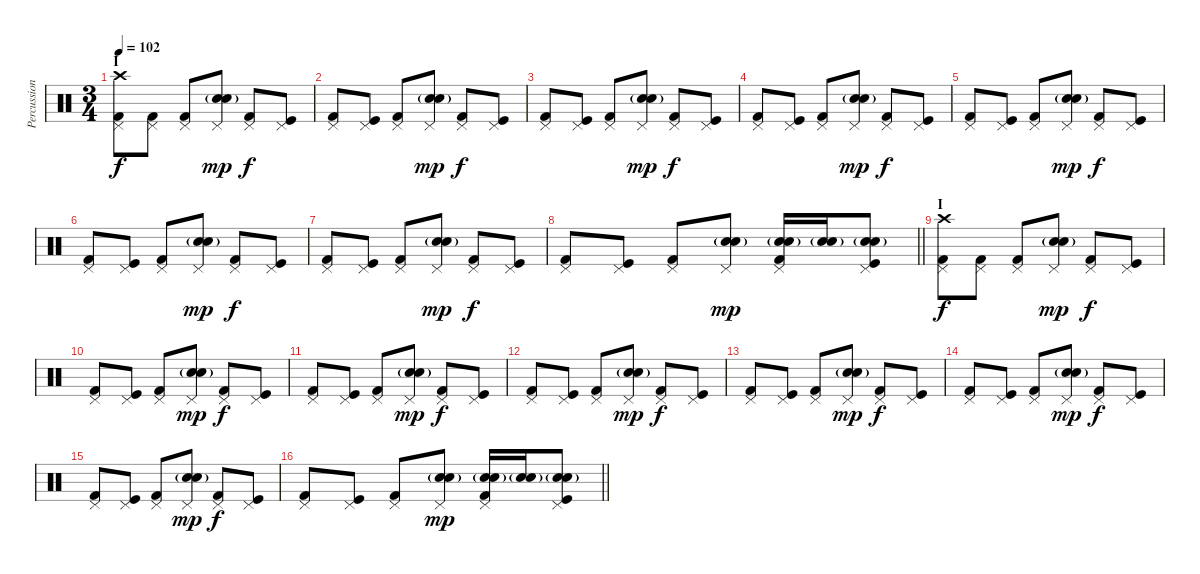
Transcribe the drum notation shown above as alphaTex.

\track ("Percussion" "Percussion") {instrument percussion}
\staff {score}
\articulation defaults
\ts (3 4)
\section ("" "I")
\tempo 102
\clef neutral
\ks c
("Crash high (hit)" "Kick (hit) 2" "Pedal Hi-Hat (hit)").8{dy f} ("Kick (hit) 2" "Pedal Hi-Hat (hit)").8 ("Kick (hit) 2" "Pedal Hi-Hat (hit)").8 ("Electric Snare (hit)" "Snare (hit) 2"{g} "Pedal Hi-Hat (hit)").8{dy mp} ("Kick (hit) 2" "Pedal Hi-Hat (hit)").8{dy f} ("Kick (hit)" "Pedal Hi-Hat (hit)").8 |
("Kick (hit) 2" "Pedal Hi-Hat (hit)").8 ("Kick (hit)" "Pedal Hi-Hat (hit)").8 ("Kick (hit) 2" "Pedal Hi-Hat (hit)").8 ("Electric Snare (hit)" "Snare (hit) 2"{g} "Pedal Hi-Hat (hit)").8{dy mp} ("Kick (hit) 2" "Pedal Hi-Hat (hit)").8{dy f} ("Kick (hit)" "Pedal Hi-Hat (hit)").8 |
("Kick (hit) 2" "Pedal Hi-Hat (hit)").8 ("Kick (hit)" "Pedal Hi-Hat (hit)").8 ("Kick (hit) 2" "Pedal Hi-Hat (hit)").8 ("Electric Snare (hit)" "Snare (hit) 2"{g} "Pedal Hi-Hat (hit)").8{dy mp} ("Kick (hit) 2" "Pedal Hi-Hat (hit)").8{dy f} ("Kick (hit)" "Pedal Hi-Hat (hit)").8 |
("Kick (hit) 2" "Pedal Hi-Hat (hit)").8 ("Kick (hit)" "Pedal Hi-Hat (hit)").8 ("Kick (hit) 2" "Pedal Hi-Hat (hit)").8 ("Electric Snare (hit)" "Snare (hit) 2"{g} "Pedal Hi-Hat (hit)").8{dy mp} ("Kick (hit) 2" "Pedal Hi-Hat (hit)").8{dy f} ("Kick (hit)" "Pedal Hi-Hat (hit)").8 |
("Kick (hit) 2" "Pedal Hi-Hat (hit)").8 ("Kick (hit)" "Pedal Hi-Hat (hit)").8 ("Kick (hit) 2" "Pedal Hi-Hat (hit)").8 ("Electric Snare (hit)" "Snare (hit) 2"{g} "Pedal Hi-Hat (hit)").8{dy mp} ("Kick (hit) 2" "Pedal Hi-Hat (hit)").8{dy f} ("Kick (hit)" "Pedal Hi-Hat (hit)").8 |
("Kick (hit) 2" "Pedal Hi-Hat (hit)").8 ("Kick (hit)" "Pedal Hi-Hat (hit)").8 ("Kick (hit) 2" "Pedal Hi-Hat (hit)").8 ("Electric Snare (hit)" "Snare (hit) 2"{g} "Pedal Hi-Hat (hit)").8{dy mp} ("Kick (hit) 2" "Pedal Hi-Hat (hit)").8{dy f} ("Kick (hit)" "Pedal Hi-Hat (hit)").8 |
("Kick (hit) 2" "Pedal Hi-Hat (hit)").8 ("Kick (hit)" "Pedal Hi-Hat (hit)").8 ("Kick (hit) 2" "Pedal Hi-Hat (hit)").8 ("Electric Snare (hit)" "Snare (hit) 2"{g} "Pedal Hi-Hat (hit)").8{dy mp} ("Kick (hit) 2" "Pedal Hi-Hat (hit)").8{dy f} ("Kick (hit)" "Pedal Hi-Hat (hit)").8 |
\barLineRight lightlight
("Kick (hit) 2" "Pedal Hi-Hat (hit)").8 ("Kick (hit)" "Pedal Hi-Hat (hit)").8 ("Kick (hit) 2" "Pedal Hi-Hat (hit)").8 ("Electric Snare (hit)" "Snare (hit) 2"{g} "Pedal Hi-Hat (hit)").8{dy mp} ("Electric Snare (hit)" "Snare (hit) 2"{g} "Kick (hit) 2" "Pedal Hi-Hat (hit)").16 ("Electric Snare (hit)" "Snare (hit) 2"{g}).16 ("Electric Snare (hit)" "Snare (hit) 2"{g} "Kick (hit)" "Pedal Hi-Hat (hit)").8 |
\section ("" "I")
("Crash high (hit)" "Kick (hit) 2" "Pedal Hi-Hat (hit)").8{dy f} ("Kick (hit) 2" "Pedal Hi-Hat (hit)").8 ("Kick (hit) 2" "Pedal Hi-Hat (hit)").8 ("Electric Snare (hit)" "Snare (hit) 2"{g} "Pedal Hi-Hat (hit)").8{dy mp} ("Kick (hit) 2" "Pedal Hi-Hat (hit)").8{dy f} ("Kick (hit)" "Pedal Hi-Hat (hit)").8 |
("Kick (hit) 2" "Pedal Hi-Hat (hit)").8 ("Kick (hit)" "Pedal Hi-Hat (hit)").8 ("Kick (hit) 2" "Pedal Hi-Hat (hit)").8 ("Electric Snare (hit)" "Snare (hit) 2"{g} "Pedal Hi-Hat (hit)").8{dy mp} ("Kick (hit) 2" "Pedal Hi-Hat (hit)").8{dy f} ("Kick (hit)" "Pedal Hi-Hat (hit)").8 |
("Kick (hit) 2" "Pedal Hi-Hat (hit)").8 ("Kick (hit)" "Pedal Hi-Hat (hit)").8 ("Kick (hit) 2" "Pedal Hi-Hat (hit)").8 ("Electric Snare (hit)" "Snare (hit) 2"{g} "Pedal Hi-Hat (hit)").8{dy mp} ("Kick (hit) 2" "Pedal Hi-Hat (hit)").8{dy f} ("Kick (hit)" "Pedal Hi-Hat (hit)").8 |
("Kick (hit) 2" "Pedal Hi-Hat (hit)").8 ("Kick (hit)" "Pedal Hi-Hat (hit)").8 ("Kick (hit) 2" "Pedal Hi-Hat (hit)").8 ("Electric Snare (hit)" "Snare (hit) 2"{g} "Pedal Hi-Hat (hit)").8{dy mp} ("Kick (hit) 2" "Pedal Hi-Hat (hit)").8{dy f} ("Kick (hit)" "Pedal Hi-Hat (hit)").8 |
("Kick (hit) 2" "Pedal Hi-Hat (hit)").8 ("Kick (hit)" "Pedal Hi-Hat (hit)").8 ("Kick (hit) 2" "Pedal Hi-Hat (hit)").8 ("Electric Snare (hit)" "Snare (hit) 2"{g} "Pedal Hi-Hat (hit)").8{dy mp} ("Kick (hit) 2" "Pedal Hi-Hat (hit)").8{dy f} ("Kick (hit)" "Pedal Hi-Hat (hit)").8 |
("Kick (hit) 2" "Pedal Hi-Hat (hit)").8 ("Kick (hit)" "Pedal Hi-Hat (hit)").8 ("Kick (hit) 2" "Pedal Hi-Hat (hit)").8 ("Electric Snare (hit)" "Snare (hit) 2"{g} "Pedal Hi-Hat (hit)").8{dy mp} ("Kick (hit) 2" "Pedal Hi-Hat (hit)").8{dy f} ("Kick (hit)" "Pedal Hi-Hat (hit)").8 |
("Kick (hit) 2" "Pedal Hi-Hat (hit)").8 ("Kick (hit)" "Pedal Hi-Hat (hit)").8 ("Kick (hit) 2" "Pedal Hi-Hat (hit)").8 ("Electric Snare (hit)" "Snare (hit) 2"{g} "Pedal Hi-Hat (hit)").8{dy mp} ("Kick (hit) 2" "Pedal Hi-Hat (hit)").8{dy f} ("Kick (hit)" "Pedal Hi-Hat (hit)").8 |
\barLineRight lightlight
("Kick (hit) 2" "Pedal Hi-Hat (hit)").8 ("Kick (hit)" "Pedal Hi-Hat (hit)").8 ("Kick (hit) 2" "Pedal Hi-Hat (hit)").8 ("Electric Snare (hit)" "Snare (hit) 2"{g} "Pedal Hi-Hat (hit)").8{dy mp} ("Electric Snare (hit)" "Snare (hit) 2"{g} "Kick (hit) 2" "Pedal Hi-Hat (hit)").16 ("Electric Snare (hit)" "Snare (hit) 2"{g}).16 ("Electric Snare (hit)" "Snare (hit) 2"{g} "Kick (hit)" "Pedal Hi-Hat (hit)").8
